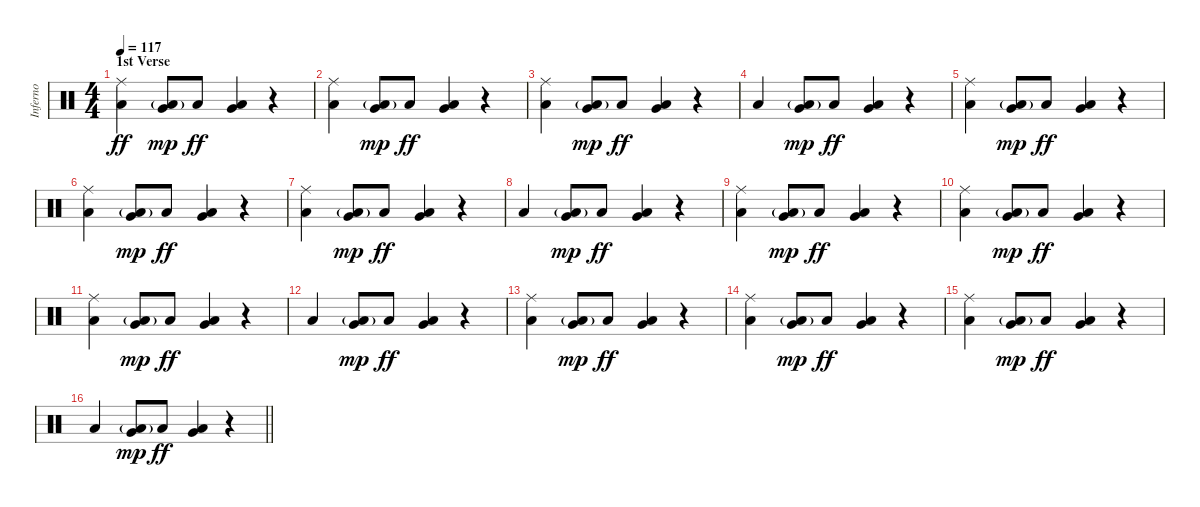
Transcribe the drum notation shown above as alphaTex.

\track ("Inferno" "Inferno") {instrument percussion}
\staff {score}
\articulation defaults
\ts (4 4)
\section ("" "1st Verse")
\tempo 117
\clef neutral
\ks c
("Ride (middle)" "Low Floor Tom (hit)").4{dy ff} ("Very Low Tom (hit)" "Low Floor Tom (hit)"{g}).8{dy mp} "Low Floor Tom (hit)".8{dy ff} ("Very Low Tom (hit)" "Low Floor Tom (hit)").4 r.4 |
("Ride (middle)" "Low Floor Tom (hit)").4 ("Very Low Tom (hit)" "Low Floor Tom (hit)"{g}).8{dy mp} "Low Floor Tom (hit)".8{dy ff} ("Very Low Tom (hit)" "Low Floor Tom (hit)").4 r.4 |
("Ride (middle)" "Low Floor Tom (hit)").4 ("Very Low Tom (hit)" "Low Floor Tom (hit)"{g}).8{dy mp} "Low Floor Tom (hit)".8{dy ff} ("Very Low Tom (hit)" "Low Floor Tom (hit)").4 r.4 |
"Low Floor Tom (hit)".4 ("Very Low Tom (hit)" "Low Floor Tom (hit)"{g}).8{dy mp} "Low Floor Tom (hit)".8{dy ff} ("Very Low Tom (hit)" "Low Floor Tom (hit)").4 r.4 |
("Ride (middle)" "Low Floor Tom (hit)").4 ("Very Low Tom (hit)" "Low Floor Tom (hit)"{g}).8{dy mp} "Low Floor Tom (hit)".8{dy ff} ("Very Low Tom (hit)" "Low Floor Tom (hit)").4 r.4 |
("Ride (middle)" "Low Floor Tom (hit)").4 ("Very Low Tom (hit)" "Low Floor Tom (hit)"{g}).8{dy mp} "Low Floor Tom (hit)".8{dy ff} ("Very Low Tom (hit)" "Low Floor Tom (hit)").4 r.4 |
("Ride (middle)" "Low Floor Tom (hit)").4 ("Very Low Tom (hit)" "Low Floor Tom (hit)"{g}).8{dy mp} "Low Floor Tom (hit)".8{dy ff} ("Very Low Tom (hit)" "Low Floor Tom (hit)").4 r.4 |
"Low Floor Tom (hit)".4 ("Very Low Tom (hit)" "Low Floor Tom (hit)"{g}).8{dy mp} "Low Floor Tom (hit)".8{dy ff} ("Very Low Tom (hit)" "Low Floor Tom (hit)").4 r.4 |
("Ride (middle)" "Low Floor Tom (hit)").4 ("Very Low Tom (hit)" "Low Floor Tom (hit)"{g}).8{dy mp} "Low Floor Tom (hit)".8{dy ff} ("Very Low Tom (hit)" "Low Floor Tom (hit)").4 r.4 |
("Ride (middle)" "Low Floor Tom (hit)").4 ("Very Low Tom (hit)" "Low Floor Tom (hit)"{g}).8{dy mp} "Low Floor Tom (hit)".8{dy ff} ("Very Low Tom (hit)" "Low Floor Tom (hit)").4 r.4 |
("Ride (middle)" "Low Floor Tom (hit)").4 ("Very Low Tom (hit)" "Low Floor Tom (hit)"{g}).8{dy mp} "Low Floor Tom (hit)".8{dy ff} ("Very Low Tom (hit)" "Low Floor Tom (hit)").4 r.4 |
"Low Floor Tom (hit)".4 ("Very Low Tom (hit)" "Low Floor Tom (hit)"{g}).8{dy mp} "Low Floor Tom (hit)".8{dy ff} ("Very Low Tom (hit)" "Low Floor Tom (hit)").4 r.4 |
("Ride (middle)" "Low Floor Tom (hit)").4 ("Very Low Tom (hit)" "Low Floor Tom (hit)"{g}).8{dy mp} "Low Floor Tom (hit)".8{dy ff} ("Very Low Tom (hit)" "Low Floor Tom (hit)").4 r.4 |
("Ride (middle)" "Low Floor Tom (hit)").4 ("Very Low Tom (hit)" "Low Floor Tom (hit)"{g}).8{dy mp} "Low Floor Tom (hit)".8{dy ff} ("Very Low Tom (hit)" "Low Floor Tom (hit)").4 r.4 |
("Ride (middle)" "Low Floor Tom (hit)").4 ("Very Low Tom (hit)" "Low Floor Tom (hit)"{g}).8{dy mp} "Low Floor Tom (hit)".8{dy ff} ("Very Low Tom (hit)" "Low Floor Tom (hit)").4 r.4 |
\barLineRight lightlight "Low Floor Tom (hit)".4
("Very Low Tom (hit)" "Low Floor Tom (hit)"{g}).8{dy mp} "Low Floor Tom (hit)".8{dy ff} ("Very Low Tom (hit)" "Low Floor Tom (hit)").4 r.4
